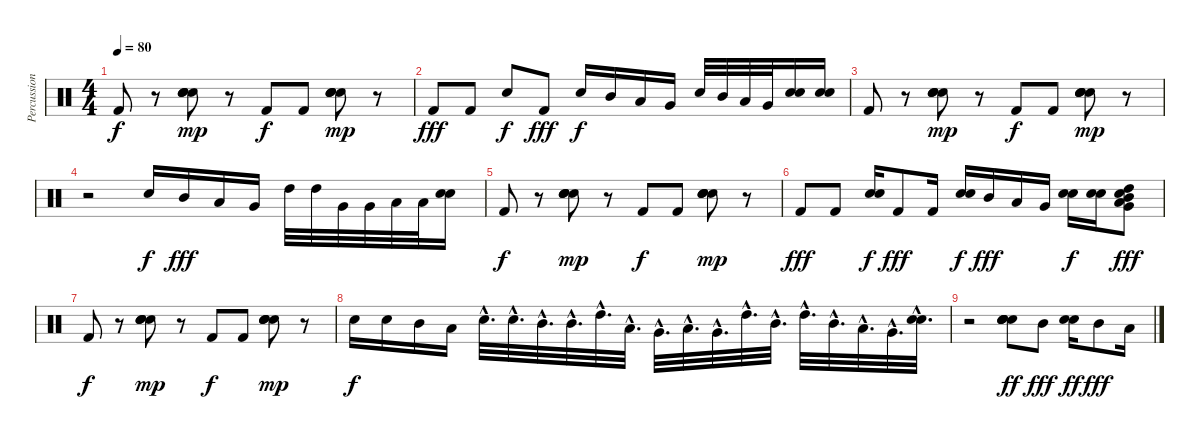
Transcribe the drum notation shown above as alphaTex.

\track ("Percussion" "Percussion") {instrument percussion}
\staff {score}
\articulation defaults
\ts (4 4)
\tempo 80
\clef neutral
\ks c "Kick (hit) 2".8{dy f}
r.8 ("Snare (hit) 2" "Snare (hit) 2" "Snare (hit) 2" "Snare (hit) 2").8{bd 60 dy mp} r.8 "Kick (hit) 2".8{dy f} "Kick (hit) 2".8 ("Snare (hit) 2" "Snare (hit) 2" "Snare (hit) 2" "Snare (hit) 2").8{bd 60 dy mp} r.8 |
"Kick (hit) 2".8{dy fff} "Kick (hit) 2".8 "Snare (hit) 2".8{dy f} "Kick (hit) 2".8{dy fff} "Snare (hit) 2".16{dy f} "Mid Tom (hit)".16 "Low Tom (hit)".16 "Very Low Tom (hit)".16 "Snare (hit) 2".32 "Mid Tom (hit)".32 "Low Tom (hit)".32 "Very Low Tom (hit)".32 ("Snare (hit) 2" "Snare (hit) 2").16{bd 480} ("Snare (hit) 2" "Snare (hit) 2").16{bd 480} |
"Kick (hit) 2".8 r.8 ("Snare (hit) 2" "Snare (hit) 2" "Snare (hit) 2" "Snare (hit) 2").8{bd 60 dy mp} r.8 "Kick (hit) 2".8{dy f} "Kick (hit) 2".8 ("Snare (hit) 2" "Snare (hit) 2" "Snare (hit) 2" "Snare (hit) 2").8{bd 60 dy mp} r.8 |
r.2 "Snare (hit) 2".16{dy f} "Mid Tom (hit)".16{dy fff} "Low Tom (hit)".16 "Very Low Tom (hit)".16 "High Tom (hit)".32 "High Tom (hit)".32 "Very Low Tom (hit)".32 "Very Low Tom (hit)".32 "Low Tom (hit)".32 "Low Floor Tom (hit)".32 ("Snare (hit) 2" "Snare (hit) 2").16{bd 480} |
"Kick (hit) 2".8{dy f} r.8 ("Snare (hit) 2" "Snare (hit) 2" "Snare (hit) 2" "Snare (hit) 2").8{bd 60 dy mp} r.8 "Kick (hit) 2".8{dy f} "Kick (hit) 2".8 ("Snare (hit) 2" "Snare (hit) 2" "Snare (hit) 2" "Snare (hit) 2").8{bd 60 dy mp} r.8 |
"Kick (hit) 2".8{dy fff} "Kick (hit) 2".8 ("Snare (hit) 2" "Snare (hit) 2").16{bd 480 dy f} "Kick (hit) 2".8{dy fff} "Kick (hit) 2".16 ("Snare (hit) 2" "Snare (hit) 2").16{bd 480 dy f} "Mid Tom (hit)".16{dy fff} "Low Tom (hit)".16 "Very Low Tom (hit)".16 ("Snare (hit) 2" "Snare (hit) 2").16{dy f} ("Snare (hit) 2" "Snare (hit) 2").16{bd 480} ("High Tom (hit)" "Mid Tom (hit)" "Low Tom (hit)" "Very Low Tom (hit)" "Snare (hit) 2").8{bu 480 dy fff} |
"Kick (hit) 2".8{dy f} r.8 ("Snare (hit) 2" "Snare (hit) 2" "Snare (hit) 2" "Snare (hit) 2").8{bd 60 dy mp} r.8 "Kick (hit) 2".8{dy f} "Kick (hit) 2".8 ("Snare (hit) 2" "Snare (hit) 2" "Snare (hit) 2" "Snare (hit) 2").8{bd 60 dy mp} r.8 |
"Snare (hit) 2".16{dy f} "Snare (hit) 2".16 "Mid Tom (hit)".16 "Low Tom (hit)".16 "Snare (hit) 2"{hac}.32{d} "Snare (hit) 2"{hac}.32{d} "Mid Tom (hit)"{hac}.32{d} "Mid Tom (hit)"{hac}.32{d} "High Tom (hit)"{hac}.32{d} "Low Tom (hit)"{hac}.32{d} "Very Low Tom (hit)"{hac}.32{d} "Low Floor Tom (hit)"{hac}.32{d} "Very Low Tom (hit)"{hac}.32{d} "High Tom (hit)"{hac}.32{d} "Mid Tom (hit)"{hac}.32{d} "High Tom (hit)"{hac}.32{d} "Mid Tom (hit)"{hac}.32{d} "Low Tom (hit)"{hac}.32{d} "Very Low Tom (hit)"{hac}.32{d} ("Snare (hit) 2"{hac} "Snare (hit) 2"{hac}).32{d bd 480} |
r.2 ("Snare (hit) 2" "Snare (hit) 2" "Snare (hit) 2" "Snare (hit) 2" "Snare (hit) 2").8{bu 240 dy ff} "Mid Tom (hit)".8{dy fff} ("Snare (hit) 2" "Snare (hit) 2").16{bd 240 dy ff} "Mid Tom (hit)".8{dy fff} "Low Tom (hit)".16
